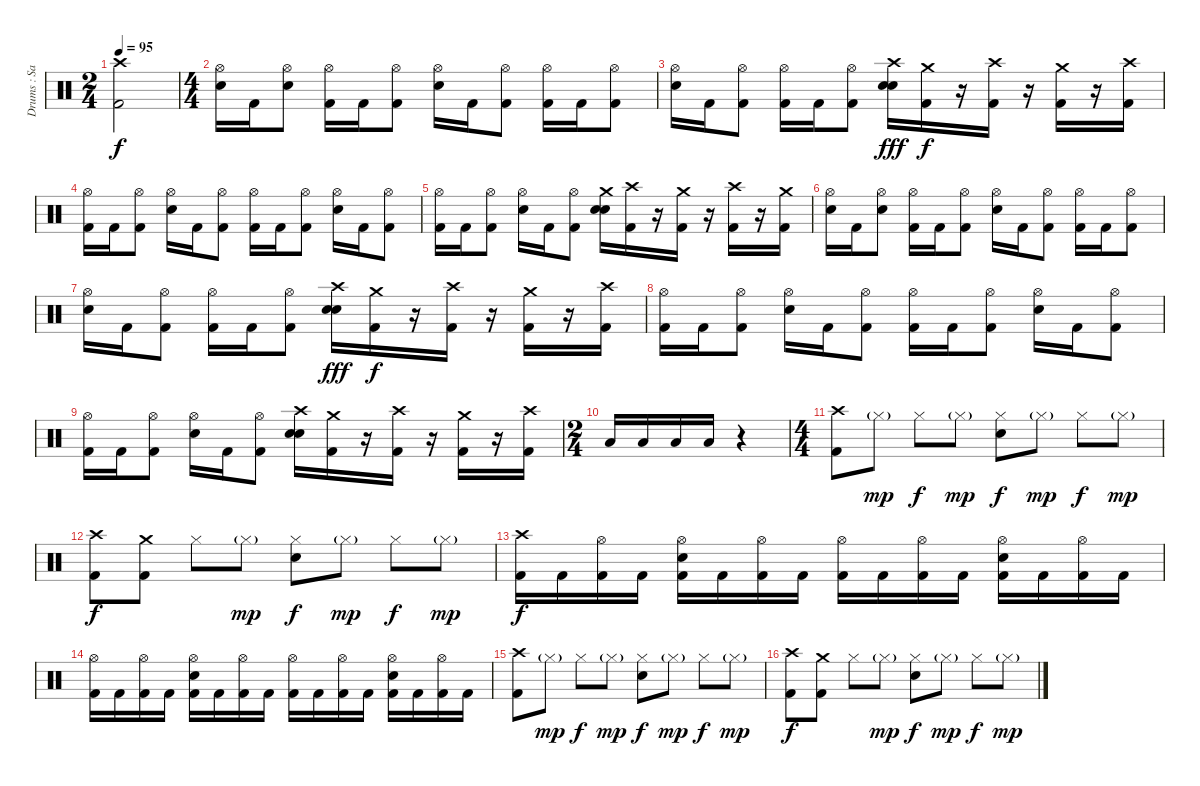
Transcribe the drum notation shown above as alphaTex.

\track ("Drums : Sammy Siegler" "Drums : Sa") {instrument percussion}
\staff {score}
\articulation defaults
\ts (2 4)
\tempo 95
\clef neutral
\ks c
("Crash high (hit)" "Kick (hit) 2").2{dy f} |
\ts (4 4)
("Hi-Hat (open)" "Electric Snare (hit)").16 "Kick (hit) 2".16 ("Hi-Hat (open)" "Electric Snare (hit)").8 ("Hi-Hat (open)" "Kick (hit) 2").16 "Kick (hit) 2".16 ("Hi-Hat (open)" "Kick (hit) 2").8 ("Hi-Hat (open)" "Electric Snare (hit)").16 "Kick (hit) 2".16 ("Hi-Hat (open)" "Kick (hit) 2").8 ("Hi-Hat (open)" "Kick (hit) 2").16 "Kick (hit) 2".16 ("Hi-Hat (open)" "Kick (hit) 2").8 |
("Hi-Hat (open)" "Electric Snare (hit)").16 "Kick (hit) 2".16 ("Hi-Hat (open)" "Kick (hit) 2").8 ("Hi-Hat (open)" "Kick (hit) 2").16 "Kick (hit) 2".16 ("Hi-Hat (open)" "Kick (hit) 2").8 ("Crash high (hit)" "Electric Snare (hit)" "Electric Snare (hit)").16{dy fff} ("Crash medium (hit)" "Kick (hit) 2").16{dy f} r.16 ("Crash high (hit)" "Kick (hit) 2").16 r.16 ("Crash medium (hit)" "Kick (hit) 2").16 r.16 ("Crash high (hit)" "Kick (hit) 2").16 |
("Hi-Hat (open)" "Kick (hit) 2").16 "Kick (hit) 2".16 ("Hi-Hat (open)" "Kick (hit) 2").8 ("Hi-Hat (open)" "Electric Snare (hit)").16 "Kick (hit) 2".16 ("Hi-Hat (open)" "Kick (hit) 2").8 ("Hi-Hat (open)" "Kick (hit) 2").16 "Kick (hit) 2".16 ("Hi-Hat (open)" "Kick (hit) 2").8 ("Hi-Hat (open)" "Electric Snare (hit)").16 "Kick (hit) 2".16 ("Hi-Hat (open)" "Kick (hit) 2").8 |
("Hi-Hat (open)" "Kick (hit) 2").16 "Kick (hit) 2".16 ("Hi-Hat (open)" "Kick (hit) 2").8 ("Hi-Hat (open)" "Electric Snare (hit)").16 "Kick (hit) 2".16 ("Hi-Hat (open)" "Kick (hit) 2").8 ("Crash medium (hit)" "Electric Snare (hit)" "Electric Snare (hit)").16 ("Crash high (hit)" "Kick (hit) 2").16 r.16 ("Crash medium (hit)" "Kick (hit) 2").16 r.16 ("Crash high (hit)" "Kick (hit) 2").16 r.16 ("Crash medium (hit)" "Kick (hit) 2").16 |
("Hi-Hat (open)" "Electric Snare (hit)").16 "Kick (hit) 2".16 ("Hi-Hat (open)" "Electric Snare (hit)").8 ("Hi-Hat (open)" "Kick (hit) 2").16 "Kick (hit) 2".16 ("Hi-Hat (open)" "Kick (hit) 2").8 ("Hi-Hat (open)" "Electric Snare (hit)").16 "Kick (hit) 2".16 ("Hi-Hat (open)" "Kick (hit) 2").8 ("Hi-Hat (open)" "Kick (hit) 2").16 "Kick (hit) 2".16 ("Hi-Hat (open)" "Kick (hit) 2").8 |
("Hi-Hat (open)" "Electric Snare (hit)").16 "Kick (hit) 2".16 ("Hi-Hat (open)" "Kick (hit) 2").8 ("Hi-Hat (open)" "Kick (hit) 2").16 "Kick (hit) 2".16 ("Hi-Hat (open)" "Kick (hit) 2").8 ("Crash high (hit)" "Electric Snare (hit)" "Electric Snare (hit)").16{dy fff} ("Crash medium (hit)" "Kick (hit) 2").16{dy f} r.16 ("Crash high (hit)" "Kick (hit) 2").16 r.16 ("Crash medium (hit)" "Kick (hit) 2").16 r.16 ("Crash high (hit)" "Kick (hit) 2").16 |
("Hi-Hat (open)" "Kick (hit) 2").16 "Kick (hit) 2".16 ("Hi-Hat (open)" "Kick (hit) 2").8 ("Hi-Hat (open)" "Electric Snare (hit)").16 "Kick (hit) 2".16 ("Hi-Hat (open)" "Kick (hit) 2").8 ("Hi-Hat (open)" "Kick (hit) 2").16 "Kick (hit) 2".16 ("Hi-Hat (open)" "Kick (hit) 2").8 ("Hi-Hat (open)" "Electric Snare (hit)").16 "Kick (hit) 2".16 ("Hi-Hat (open)" "Kick (hit) 2").8 |
("Hi-Hat (open)" "Kick (hit) 2").16 "Kick (hit) 2".16 ("Hi-Hat (open)" "Kick (hit) 2").8 ("Hi-Hat (open)" "Electric Snare (hit)").16 "Kick (hit) 2".16 ("Hi-Hat (open)" "Kick (hit) 2").8 ("Crash high (hit)" "Electric Snare (hit)" "Electric Snare (hit)").16 ("Crash medium (hit)" "Kick (hit) 2").16 r.16 ("Crash high (hit)" "Kick (hit) 2").16 r.16 ("Crash medium (hit)" "Kick (hit) 2").16 r.16 ("Crash high (hit)" "Kick (hit) 2").16 |
\ts (2 4)
"Low Floor Tom (hit)".16 "Low Tom (hit)".16 "Low Floor Tom (hit)".16 "Low Floor Tom (hit)".16 r.4 |
\ts (4 4)
("Crash high (hit)" "Kick (hit) 2").8 "Hi-Hat (closed)"{g}.8{dy mp} "Hi-Hat (closed)".8{dy f} "Hi-Hat (closed)"{g}.8{dy mp} ("Hi-Hat (closed)" "Electric Snare (hit)").8{dy f} "Hi-Hat (closed)"{g}.8{dy mp} "Hi-Hat (closed)".8{dy f} "Hi-Hat (closed)"{g}.8{dy mp} |
("Crash high (hit)" "Kick (hit) 2").8{dy f} ("Crash medium (hit)" "Kick (hit) 2").8 "Hi-Hat (closed)".8 "Hi-Hat (closed)"{g}.8{dy mp} ("Hi-Hat (closed)" "Electric Snare (hit)").8{dy f} "Hi-Hat (closed)"{g}.8{dy mp} "Hi-Hat (closed)".8{dy f} "Hi-Hat (closed)"{g}.8{dy mp} |
("Crash high (hit)" "Kick (hit) 2").16{dy f} "Kick (hit) 2".16 ("Hi-Hat (open)" "Kick (hit) 2").16 "Kick (hit) 2".16 ("Hi-Hat (open)" "Electric Snare (hit)" "Kick (hit) 2").16 "Kick (hit) 2".16 ("Hi-Hat (open)" "Kick (hit) 2").16 "Kick (hit) 2".16 ("Hi-Hat (open)" "Kick (hit) 2").16 "Kick (hit) 2".16 ("Hi-Hat (open)" "Kick (hit) 2").16 "Kick (hit) 2".16 ("Hi-Hat (open)" "Electric Snare (hit)" "Kick (hit) 2").16 "Kick (hit) 2".16 ("Hi-Hat (open)" "Kick (hit) 2").16 "Kick (hit) 2".16 |
("Hi-Hat (open)" "Kick (hit) 2").16 "Kick (hit) 2".16 ("Hi-Hat (open)" "Kick (hit) 2").16 "Kick (hit) 2".16 ("Hi-Hat (open)" "Electric Snare (hit)" "Kick (hit) 2").16 "Kick (hit) 2".16 ("Hi-Hat (open)" "Kick (hit) 2").16 "Kick (hit) 2".16 ("Hi-Hat (open)" "Kick (hit) 2").16 "Kick (hit) 2".16 ("Hi-Hat (open)" "Kick (hit) 2").16 "Kick (hit) 2".16 ("Hi-Hat (open)" "Electric Snare (hit)" "Kick (hit) 2").16 "Kick (hit) 2".16 ("Hi-Hat (open)" "Kick (hit) 2").16 "Kick (hit) 2".16 |
("Crash high (hit)" "Kick (hit) 2").8 "Hi-Hat (closed)"{g}.8{dy mp} "Hi-Hat (closed)".8{dy f} "Hi-Hat (closed)"{g}.8{dy mp} ("Hi-Hat (closed)" "Electric Snare (hit)").8{dy f} "Hi-Hat (closed)"{g}.8{dy mp} "Hi-Hat (closed)".8{dy f} "Hi-Hat (closed)"{g}.8{dy mp} |
("Crash high (hit)" "Kick (hit) 2").8{dy f} ("Crash medium (hit)" "Kick (hit) 2").8 "Hi-Hat (closed)".8 "Hi-Hat (closed)"{g}.8{dy mp} ("Hi-Hat (closed)" "Electric Snare (hit)").8{dy f} "Hi-Hat (closed)"{g}.8{dy mp} "Hi-Hat (closed)".8{dy f} "Hi-Hat (closed)"{g}.8{dy mp}
